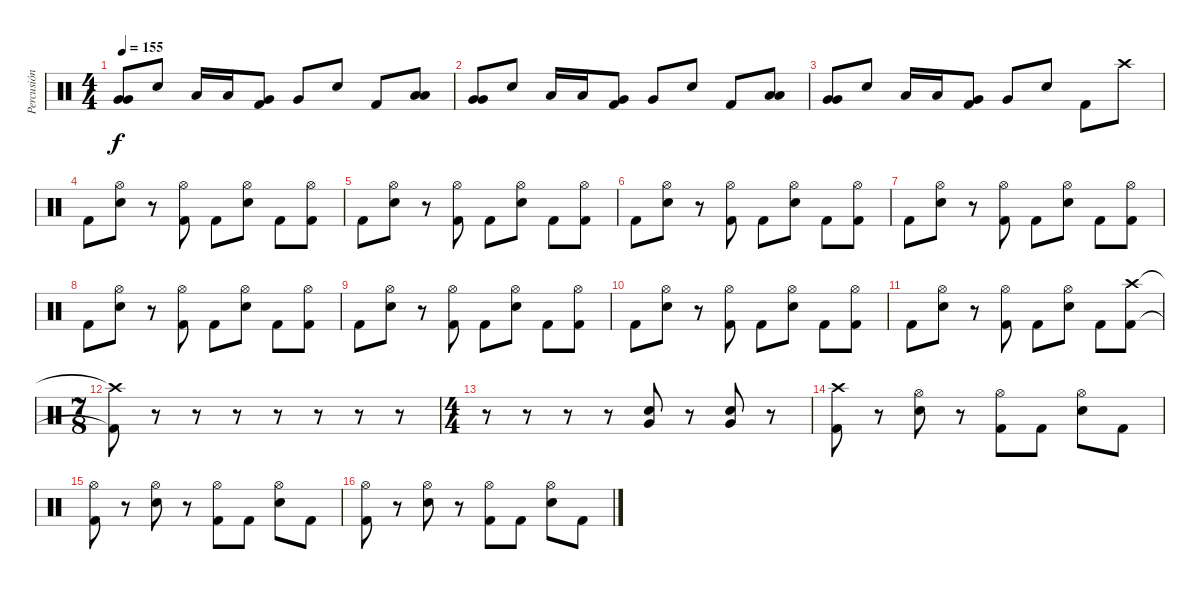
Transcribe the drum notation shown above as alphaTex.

\track ("Percusión" "Percusión") {instrument percussion}
\staff {score}
\articulation defaults
\ts (4 4)
\tempo 155
\clef neutral
\ks c
("Very Low Tom (hit)" "Very Low Tom (hit)").8{dy f} "Electric Snare (hit)".8 "Low Floor Tom (hit)".16 "Low Floor Tom (hit)".16 ("Very Low Tom (hit)" "Kick (hit) 2").8 "Very Low Tom (hit)".8 "Electric Snare (hit)".8 "Kick (hit) 2".8 ("Low Tom (hit)" "Low Tom (hit)").8 |
("Very Low Tom (hit)" "Very Low Tom (hit)").8 "Electric Snare (hit)".8 "Low Floor Tom (hit)".16 "Low Floor Tom (hit)".16 ("Very Low Tom (hit)" "Kick (hit) 2").8 "Very Low Tom (hit)".8 "Electric Snare (hit)".8 "Kick (hit) 2".8 ("Low Tom (hit)" "Low Tom (hit)").8 |
("Very Low Tom (hit)" "Very Low Tom (hit)").8 "Electric Snare (hit)".8 "Low Floor Tom (hit)".16 "Low Floor Tom (hit)".16 ("Very Low Tom (hit)" "Kick (hit) 2").8 "Very Low Tom (hit)".8 "Electric Snare (hit)".8 "Kick (hit) 2".8 "Crash high (hit)".8 |
"Kick (hit) 2".8 ("Hi-Hat (open)" "Electric Snare (hit)").8 r.8 ("Hi-Hat (open)" "Kick (hit) 2").8 "Kick (hit) 2".8 ("Hi-Hat (open)" "Electric Snare (hit)").8 "Kick (hit) 2".8 ("Hi-Hat (open)" "Kick (hit) 2").8 |
"Kick (hit) 2".8 ("Hi-Hat (open)" "Electric Snare (hit)").8 r.8 ("Hi-Hat (open)" "Kick (hit) 2").8 "Kick (hit) 2".8 ("Hi-Hat (open)" "Electric Snare (hit)").8 "Kick (hit) 2".8 ("Hi-Hat (open)" "Kick (hit) 2").8 |
"Kick (hit) 2".8 ("Hi-Hat (open)" "Electric Snare (hit)").8 r.8 ("Hi-Hat (open)" "Kick (hit) 2").8 "Kick (hit) 2".8 ("Hi-Hat (open)" "Electric Snare (hit)").8 "Kick (hit) 2".8 ("Hi-Hat (open)" "Kick (hit) 2").8 |
"Kick (hit) 2".8 ("Hi-Hat (open)" "Electric Snare (hit)").8 r.8 ("Hi-Hat (open)" "Kick (hit) 2").8 "Kick (hit) 2".8 ("Hi-Hat (open)" "Electric Snare (hit)").8 "Kick (hit) 2".8 ("Hi-Hat (open)" "Kick (hit) 2").8 |
"Kick (hit) 2".8 ("Hi-Hat (open)" "Electric Snare (hit)").8 r.8 ("Hi-Hat (open)" "Kick (hit) 2").8 "Kick (hit) 2".8 ("Hi-Hat (open)" "Electric Snare (hit)").8 "Kick (hit) 2".8 ("Hi-Hat (open)" "Kick (hit) 2").8 |
"Kick (hit) 2".8 ("Hi-Hat (open)" "Electric Snare (hit)").8 r.8 ("Hi-Hat (open)" "Kick (hit) 2").8 "Kick (hit) 2".8 ("Hi-Hat (open)" "Electric Snare (hit)").8 "Kick (hit) 2".8 ("Hi-Hat (open)" "Kick (hit) 2").8 |
"Kick (hit) 2".8 ("Hi-Hat (open)" "Electric Snare (hit)").8 r.8 ("Hi-Hat (open)" "Kick (hit) 2").8 "Kick (hit) 2".8 ("Hi-Hat (open)" "Electric Snare (hit)").8 "Kick (hit) 2".8 ("Hi-Hat (open)" "Kick (hit) 2").8 |
"Kick (hit) 2".8 ("Hi-Hat (open)" "Electric Snare (hit)").8 r.8 ("Hi-Hat (open)" "Kick (hit) 2").8 "Kick (hit) 2".8 ("Hi-Hat (open)" "Electric Snare (hit)").8 "Kick (hit) 2".8 ("Crash high (hit)" "Kick (hit) 2").8 |
\ts (7 8)
("Crash high (hit)"{t} "Kick (hit) 2"{t}).8 r.8 r.8 r.8 r.8 r.8 r.8 r.8 |
\ts (4 4)
r.8 r.8 r.8 r.8 ("Very Low Tom (hit)" "Electric Snare (hit)").8 r.8 ("Very Low Tom (hit)" "Electric Snare (hit)").8 r.8 |
("Crash high (hit)" "Kick (hit) 2").8 r.8 ("Hi-Hat (open)" "Electric Snare (hit)").8 r.8 ("Hi-Hat (open)" "Kick (hit) 2").8 "Kick (hit) 2".8 ("Hi-Hat (open)" "Electric Snare (hit)").8 "Kick (hit) 2".8 |
("Hi-Hat (open)" "Kick (hit) 2").8 r.8 ("Hi-Hat (open)" "Electric Snare (hit)").8 r.8 ("Hi-Hat (open)" "Kick (hit) 2").8 "Kick (hit) 2".8 ("Hi-Hat (open)" "Electric Snare (hit)").8 "Kick (hit) 2".8 |
("Hi-Hat (open)" "Kick (hit) 2").8 r.8 ("Hi-Hat (open)" "Electric Snare (hit)").8 r.8 ("Hi-Hat (open)" "Kick (hit) 2").8 "Kick (hit) 2".8 ("Hi-Hat (open)" "Electric Snare (hit)").8 "Kick (hit) 2".8
